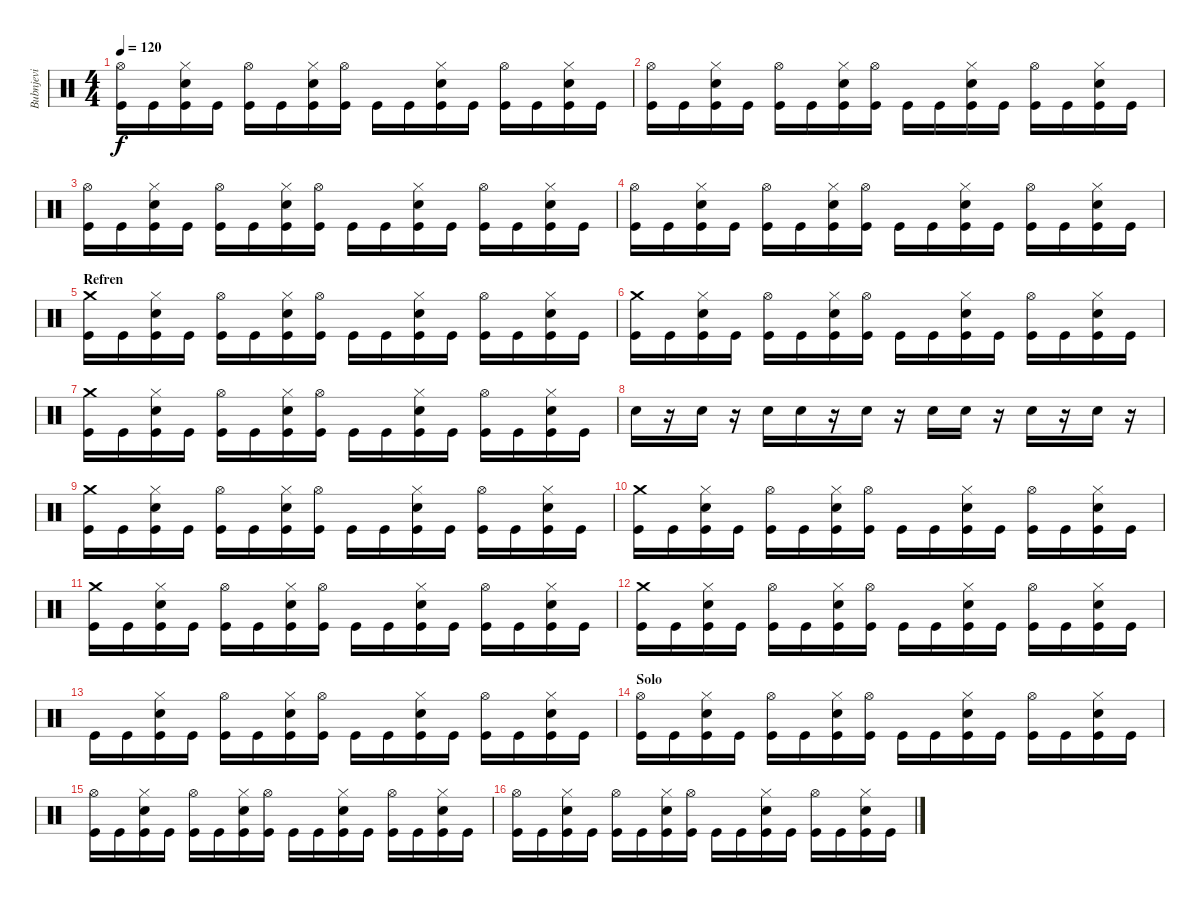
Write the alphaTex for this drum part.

\track ("Bubnjevi" "Bubnjevi") {instrument percussion}
\staff {score}
\articulation defaults
\ts (4 4)
\tempo 120
\clef neutral
\ks c
("Hi-Hat (open)" "Kick (hit)").16{dy f} "Kick (hit)".16 ("Electric Snare (hit)" "Hi-Hat (closed)" "Kick (hit)").16 "Kick (hit)".16 ("Hi-Hat (open)" "Kick (hit)").16 "Kick (hit)".16 ("Electric Snare (hit)" "Hi-Hat (closed)" "Kick (hit)").16 ("Hi-Hat (open)" "Kick (hit)").16 "Kick (hit)".16 "Kick (hit)".16 ("Electric Snare (hit)" "Hi-Hat (closed)" "Kick (hit)").16 "Kick (hit)".16 ("Hi-Hat (open)" "Kick (hit)").16 "Kick (hit)".16 ("Electric Snare (hit)" "Hi-Hat (closed)" "Kick (hit)").16 "Kick (hit)".16 |
("Hi-Hat (open)" "Kick (hit)").16 "Kick (hit)".16 ("Electric Snare (hit)" "Hi-Hat (closed)" "Kick (hit)").16 "Kick (hit)".16 ("Hi-Hat (open)" "Kick (hit)").16 "Kick (hit)".16 ("Electric Snare (hit)" "Hi-Hat (closed)" "Kick (hit)").16 ("Hi-Hat (open)" "Kick (hit)").16 "Kick (hit)".16 "Kick (hit)".16 ("Electric Snare (hit)" "Hi-Hat (closed)" "Kick (hit)").16 "Kick (hit)".16 ("Hi-Hat (open)" "Kick (hit)").16 "Kick (hit)".16 ("Electric Snare (hit)" "Hi-Hat (closed)" "Kick (hit)").16 "Kick (hit)".16 |
("Hi-Hat (open)" "Kick (hit)").16 "Kick (hit)".16 ("Electric Snare (hit)" "Hi-Hat (closed)" "Kick (hit)").16 "Kick (hit)".16 ("Hi-Hat (open)" "Kick (hit)").16 "Kick (hit)".16 ("Electric Snare (hit)" "Hi-Hat (closed)" "Kick (hit)").16 ("Hi-Hat (open)" "Kick (hit)").16 "Kick (hit)".16 "Kick (hit)".16 ("Electric Snare (hit)" "Hi-Hat (closed)" "Kick (hit)").16 "Kick (hit)".16 ("Hi-Hat (open)" "Kick (hit)").16 "Kick (hit)".16 ("Electric Snare (hit)" "Hi-Hat (closed)" "Kick (hit)").16 "Kick (hit)".16 |
("Hi-Hat (open)" "Kick (hit)").16 "Kick (hit)".16 ("Electric Snare (hit)" "Hi-Hat (closed)" "Kick (hit)").16 "Kick (hit)".16 ("Hi-Hat (open)" "Kick (hit)").16 "Kick (hit)".16 ("Electric Snare (hit)" "Hi-Hat (closed)" "Kick (hit)").16 ("Hi-Hat (open)" "Kick (hit)").16 "Kick (hit)".16 "Kick (hit)".16 ("Electric Snare (hit)" "Hi-Hat (closed)" "Kick (hit)").16 "Kick (hit)".16 ("Hi-Hat (open)" "Kick (hit)").16 "Kick (hit)".16 ("Electric Snare (hit)" "Hi-Hat (closed)" "Kick (hit)").16 "Kick (hit)".16 |
\section ("" "Refren")
("Crash medium (hit)" "Kick (hit)").16 "Kick (hit)".16 ("Electric Snare (hit)" "Hi-Hat (closed)" "Kick (hit)").16 "Kick (hit)".16 ("Hi-Hat (open)" "Kick (hit)").16 "Kick (hit)".16 ("Electric Snare (hit)" "Hi-Hat (closed)" "Kick (hit)").16 ("Hi-Hat (open)" "Kick (hit)").16 "Kick (hit)".16 "Kick (hit)".16 ("Electric Snare (hit)" "Hi-Hat (closed)" "Kick (hit)").16 "Kick (hit)".16 ("Hi-Hat (open)" "Kick (hit)").16 "Kick (hit)".16 ("Electric Snare (hit)" "Hi-Hat (closed)" "Kick (hit)").16 "Kick (hit)".16 |
("Crash medium (hit)" "Kick (hit)").16 "Kick (hit)".16 ("Electric Snare (hit)" "Hi-Hat (closed)" "Kick (hit)").16 "Kick (hit)".16 ("Hi-Hat (open)" "Kick (hit)").16 "Kick (hit)".16 ("Electric Snare (hit)" "Hi-Hat (closed)" "Kick (hit)").16 ("Hi-Hat (open)" "Kick (hit)").16 "Kick (hit)".16 "Kick (hit)".16 ("Electric Snare (hit)" "Hi-Hat (closed)" "Kick (hit)").16 "Kick (hit)".16 ("Hi-Hat (open)" "Kick (hit)").16 "Kick (hit)".16 ("Electric Snare (hit)" "Hi-Hat (closed)" "Kick (hit)").16 "Kick (hit)".16 |
("Crash medium (hit)" "Kick (hit)").16 "Kick (hit)".16 ("Electric Snare (hit)" "Hi-Hat (closed)" "Kick (hit)").16 "Kick (hit)".16 ("Hi-Hat (open)" "Kick (hit)").16 "Kick (hit)".16 ("Electric Snare (hit)" "Hi-Hat (closed)" "Kick (hit)").16 ("Hi-Hat (open)" "Kick (hit)").16 "Kick (hit)".16 "Kick (hit)".16 ("Electric Snare (hit)" "Hi-Hat (closed)" "Kick (hit)").16 "Kick (hit)".16 ("Hi-Hat (open)" "Kick (hit)").16 "Kick (hit)".16 ("Electric Snare (hit)" "Hi-Hat (closed)" "Kick (hit)").16 "Kick (hit)".16 |
"Electric Snare (hit)".16 r.16 "Electric Snare (hit)".16 r.16 "Electric Snare (hit)".16 "Electric Snare (hit)".16 r.16 "Electric Snare (hit)".16 r.16 "Electric Snare (hit)".16 "Electric Snare (hit)".16 r.16 "Electric Snare (hit)".16 r.16 "Electric Snare (hit)".16 r.16 |
("Crash medium (hit)" "Kick (hit)").16 "Kick (hit)".16 ("Electric Snare (hit)" "Hi-Hat (closed)" "Kick (hit)").16 "Kick (hit)".16 ("Hi-Hat (open)" "Kick (hit)").16 "Kick (hit)".16 ("Electric Snare (hit)" "Hi-Hat (closed)" "Kick (hit)").16 ("Hi-Hat (open)" "Kick (hit)").16 "Kick (hit)".16 "Kick (hit)".16 ("Electric Snare (hit)" "Hi-Hat (closed)" "Kick (hit)").16 "Kick (hit)".16 ("Hi-Hat (open)" "Kick (hit)").16 "Kick (hit)".16 ("Electric Snare (hit)" "Hi-Hat (closed)" "Kick (hit)").16 "Kick (hit)".16 |
("Crash medium (hit)" "Kick (hit)").16 "Kick (hit)".16 ("Electric Snare (hit)" "Hi-Hat (closed)" "Kick (hit)").16 "Kick (hit)".16 ("Hi-Hat (open)" "Kick (hit)").16 "Kick (hit)".16 ("Electric Snare (hit)" "Hi-Hat (closed)" "Kick (hit)").16 ("Hi-Hat (open)" "Kick (hit)").16 "Kick (hit)".16 "Kick (hit)".16 ("Electric Snare (hit)" "Hi-Hat (closed)" "Kick (hit)").16 "Kick (hit)".16 ("Hi-Hat (open)" "Kick (hit)").16 "Kick (hit)".16 ("Electric Snare (hit)" "Hi-Hat (closed)" "Kick (hit)").16 "Kick (hit)".16 |
("Crash medium (hit)" "Kick (hit)").16 "Kick (hit)".16 ("Electric Snare (hit)" "Hi-Hat (closed)" "Kick (hit)").16 "Kick (hit)".16 ("Hi-Hat (open)" "Kick (hit)").16 "Kick (hit)".16 ("Electric Snare (hit)" "Hi-Hat (closed)" "Kick (hit)").16 ("Hi-Hat (open)" "Kick (hit)").16 "Kick (hit)".16 "Kick (hit)".16 ("Electric Snare (hit)" "Hi-Hat (closed)" "Kick (hit)").16 "Kick (hit)".16 ("Hi-Hat (open)" "Kick (hit)").16 "Kick (hit)".16 ("Electric Snare (hit)" "Hi-Hat (closed)" "Kick (hit)").16 "Kick (hit)".16 |
("Crash medium (hit)" "Kick (hit)").16 "Kick (hit)".16 ("Electric Snare (hit)" "Hi-Hat (closed)" "Kick (hit)").16 "Kick (hit)".16 ("Hi-Hat (open)" "Kick (hit)").16 "Kick (hit)".16 ("Electric Snare (hit)" "Hi-Hat (closed)" "Kick (hit)").16 ("Hi-Hat (open)" "Kick (hit)").16 "Kick (hit)".16 "Kick (hit)".16 ("Electric Snare (hit)" "Hi-Hat (closed)" "Kick (hit)").16 "Kick (hit)".16 ("Hi-Hat (open)" "Kick (hit)").16 "Kick (hit)".16 ("Electric Snare (hit)" "Hi-Hat (closed)" "Kick (hit)").16 "Kick (hit)".16 |
"Kick (hit)".16 "Kick (hit)".16 ("Electric Snare (hit)" "Hi-Hat (closed)" "Kick (hit)").16 "Kick (hit)".16 ("Hi-Hat (open)" "Kick (hit)").16 "Kick (hit)".16 ("Electric Snare (hit)" "Hi-Hat (closed)" "Kick (hit)").16 ("Hi-Hat (open)" "Kick (hit)").16 "Kick (hit)".16 "Kick (hit)".16 ("Electric Snare (hit)" "Hi-Hat (closed)" "Kick (hit)").16 "Kick (hit)".16 ("Hi-Hat (open)" "Kick (hit)").16 "Kick (hit)".16 ("Electric Snare (hit)" "Hi-Hat (closed)" "Kick (hit)").16 "Kick (hit)".16 |
\section ("" "Solo")
("Hi-Hat (open)" "Kick (hit)").16 "Kick (hit)".16 ("Electric Snare (hit)" "Hi-Hat (closed)" "Kick (hit)").16 "Kick (hit)".16 ("Hi-Hat (open)" "Kick (hit)").16 "Kick (hit)".16 ("Electric Snare (hit)" "Hi-Hat (closed)" "Kick (hit)").16 ("Hi-Hat (open)" "Kick (hit)").16 "Kick (hit)".16 "Kick (hit)".16 ("Electric Snare (hit)" "Hi-Hat (closed)" "Kick (hit)").16 "Kick (hit)".16 ("Hi-Hat (open)" "Kick (hit)").16 "Kick (hit)".16 ("Electric Snare (hit)" "Hi-Hat (closed)" "Kick (hit)").16 "Kick (hit)".16 |
("Hi-Hat (open)" "Kick (hit)").16 "Kick (hit)".16 ("Electric Snare (hit)" "Hi-Hat (closed)" "Kick (hit)").16 "Kick (hit)".16 ("Hi-Hat (open)" "Kick (hit)").16 "Kick (hit)".16 ("Electric Snare (hit)" "Hi-Hat (closed)" "Kick (hit)").16 ("Hi-Hat (open)" "Kick (hit)").16 "Kick (hit)".16 "Kick (hit)".16 ("Electric Snare (hit)" "Hi-Hat (closed)" "Kick (hit)").16 "Kick (hit)".16 ("Hi-Hat (open)" "Kick (hit)").16 "Kick (hit)".16 ("Electric Snare (hit)" "Hi-Hat (closed)" "Kick (hit)").16 "Kick (hit)".16 |
("Hi-Hat (open)" "Kick (hit)").16 "Kick (hit)".16 ("Electric Snare (hit)" "Hi-Hat (closed)" "Kick (hit)").16 "Kick (hit)".16 ("Hi-Hat (open)" "Kick (hit)").16 "Kick (hit)".16 ("Electric Snare (hit)" "Hi-Hat (closed)" "Kick (hit)").16 ("Hi-Hat (open)" "Kick (hit)").16 "Kick (hit)".16 "Kick (hit)".16 ("Electric Snare (hit)" "Hi-Hat (closed)" "Kick (hit)").16 "Kick (hit)".16 ("Hi-Hat (open)" "Kick (hit)").16 "Kick (hit)".16 ("Electric Snare (hit)" "Hi-Hat (closed)" "Kick (hit)").16 "Kick (hit)".16
